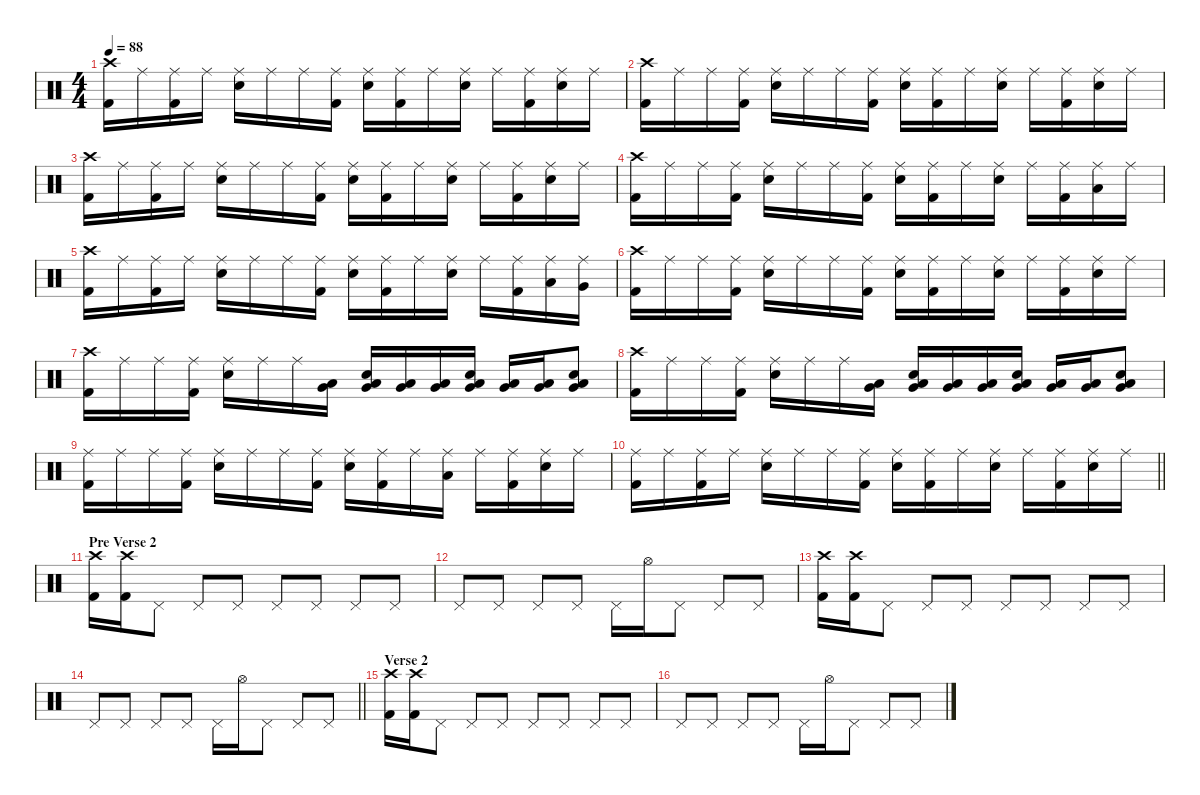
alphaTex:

\defaultSystemsLayout 4
\hideDynamics
\bracketExtendMode nobrackets
\singleTrackTrackNamePolicy hidden
\multiTrackTrackNamePolicy hidden
\firstSystemTrackNameMode fullname
\firstSystemTrackNameOrientation horizontal
\otherSystemsTrackNameOrientation horizontal
\track ("Drums" "drm.") {instrument percussion}
\staff {score}
\articulation defaults
\ts (4 4)
\tempo 88
\clef neutral
\ks c
("Crash high (hit)" "Kick (hit) 2").16{dy f beam Down} "Ride (middle)".16{beam Down} ("Ride (middle)" "Kick (hit) 2").16{beam Down} "Ride (middle)".16{beam Down} ("Ride (middle)" "Snare (hit) 2").16{beam Down} "Ride (middle)".16{beam Down} "Ride (middle)".16{beam Down} ("Ride (middle)" "Kick (hit) 2").16{beam Down} ("Ride (middle)" "Snare (hit) 2").16{beam Down} ("Ride (middle)" "Kick (hit) 2").16{beam Down} "Ride (middle)".16{beam Down} ("Ride (middle)" "Snare (hit) 2").16{beam Down} "Ride (middle)".16{beam Down} ("Ride (middle)" "Kick (hit) 2").16{beam Down} ("Ride (middle)" "Snare (hit) 2").16{beam Down} "Ride (middle)".16{beam Down} |
("Crash high (hit)" "Kick (hit) 2").16{beam Down} "Ride (middle)".16{beam Down} "Ride (middle)".16{beam Down} ("Ride (middle)" "Kick (hit) 2").16{beam Down} ("Ride (middle)" "Snare (hit) 2").16{beam Down} "Ride (middle)".16{beam Down} "Ride (middle)".16{beam Down} ("Ride (middle)" "Kick (hit) 2").16{beam Down} ("Ride (middle)" "Snare (hit) 2").16{beam Down} ("Ride (middle)" "Kick (hit) 2").16{beam Down} "Ride (middle)".16{beam Down} ("Ride (middle)" "Snare (hit) 2").16{beam Down} "Ride (middle)".16{beam Down} ("Ride (middle)" "Kick (hit) 2").16{beam Down} ("Ride (middle)" "Snare (hit) 2").16{beam Down} "Ride (middle)".16{beam Down} |
("Crash high (hit)" "Kick (hit) 2").16{beam Down} "Ride (middle)".16{beam Down} ("Ride (middle)" "Kick (hit) 2").16{beam Down} "Ride (middle)".16{beam Down} ("Ride (middle)" "Snare (hit) 2").16{beam Down} "Ride (middle)".16{beam Down} "Ride (middle)".16{beam Down} ("Ride (middle)" "Kick (hit) 2").16{beam Down} ("Ride (middle)" "Snare (hit) 2").16{beam Down} ("Ride (middle)" "Kick (hit) 2").16{beam Down} "Ride (middle)".16{beam Down} ("Ride (middle)" "Snare (hit) 2").16{beam Down} "Ride (middle)".16{beam Down} ("Ride (middle)" "Kick (hit) 2").16{beam Down} ("Ride (middle)" "Snare (hit) 2").16{beam Down} "Ride (middle)".16{beam Down} |
("Crash high (hit)" "Kick (hit) 2").16{beam Down} "Ride (middle)".16{beam Down} "Ride (middle)".16{beam Down} ("Ride (middle)" "Kick (hit) 2").16{beam Down} ("Ride (middle)" "Snare (hit) 2").16{beam Down} "Ride (middle)".16{beam Down} "Ride (middle)".16{beam Down} ("Ride (middle)" "Kick (hit) 2").16{beam Down} ("Ride (middle)" "Snare (hit) 2").16{beam Down} ("Ride (middle)" "Kick (hit) 2").16{beam Down} "Ride (middle)".16{beam Down} ("Ride (middle)" "Snare (hit) 2").16{beam Down} "Ride (middle)".16{beam Down} ("Ride (middle)" "Kick (hit) 2").16{beam Down} ("Ride (middle)" "Low Tom (hit)").16{beam Down} "Ride (middle)".16{beam Down} |
("Crash high (hit)" "Kick (hit) 2").16{beam Down} "Ride (middle)".16{beam Down} ("Ride (middle)" "Kick (hit) 2").16{beam Down} "Ride (middle)".16{beam Down} ("Ride (middle)" "Snare (hit) 2").16{beam Down} "Ride (middle)".16{beam Down} "Ride (middle)".16{beam Down} ("Ride (middle)" "Kick (hit) 2").16{beam Down} ("Ride (middle)" "Snare (hit) 2").16{beam Down} ("Ride (middle)" "Kick (hit) 2").16{beam Down} "Ride (middle)".16{beam Down} ("Ride (middle)" "Snare (hit) 2").16{beam Down} "Ride (middle)".16{beam Down} ("Ride (middle)" "Kick (hit) 2").16{beam Down} ("Ride (middle)" "Low Tom (hit)").16{beam Down} ("Ride (middle)" "Very Low Tom (hit)").16{beam Down} |
("Crash high (hit)" "Kick (hit) 2").16{beam Down} "Ride (middle)".16{beam Down} "Ride (middle)".16{beam Down} ("Ride (middle)" "Kick (hit) 2").16{beam Down} ("Ride (middle)" "Snare (hit) 2").16{beam Down} "Ride (middle)".16{beam Down} "Ride (middle)".16{beam Down} ("Ride (middle)" "Kick (hit) 2").16{beam Down} ("Ride (middle)" "Snare (hit) 2").16{beam Down} ("Ride (middle)" "Kick (hit) 2").16{beam Down} "Ride (middle)".16{beam Down} ("Ride (middle)" "Snare (hit) 2").16{beam Down} "Ride (middle)".16{beam Down} ("Ride (middle)" "Kick (hit) 2").16{beam Down} ("Ride (middle)" "Snare (hit) 2").16{beam Down} "Ride (middle)".16{beam Down} |
("Crash high (hit)" "Kick (hit) 2").16{beam Down} "Ride (middle)".16{beam Down} "Ride (middle)".16{beam Down} ("Ride (middle)" "Kick (hit) 2").16{beam Down} ("Ride (middle)" "Snare (hit) 2").16{beam Down} "Ride (middle)".16{beam Down} "Ride (middle)".16{beam Down} ("Low Tom (hit)" "Very Low Tom (hit)").16{beam Down} ("Snare (hit) 2" "Low Tom (hit)" "Very Low Tom (hit)").16{beam Up} ("Low Tom (hit)" "Very Low Tom (hit)").16{beam Up} ("Low Tom (hit)" "Very Low Tom (hit)").16{beam Up} ("Snare (hit) 2" "Low Tom (hit)" "Very Low Tom (hit)").16{beam Up} ("Low Tom (hit)" "Very Low Tom (hit)").16{beam Up} ("Low Tom (hit)" "Very Low Tom (hit)").16{beam Up} ("Snare (hit) 2" "Low Tom (hit)" "Very Low Tom (hit)").8{beam Up} |
("Crash high (hit)" "Kick (hit) 2").16{beam Down} "Ride (middle)".16{beam Down} "Ride (middle)".16{beam Down} ("Ride (middle)" "Kick (hit) 2").16{beam Down} ("Ride (middle)" "Snare (hit) 2").16{beam Down} "Ride (middle)".16{beam Down} "Ride (middle)".16{beam Down} ("Low Tom (hit)" "Very Low Tom (hit)").16{beam Down} ("Snare (hit) 2" "Low Tom (hit)" "Very Low Tom (hit)").16{beam Up} ("Low Tom (hit)" "Very Low Tom (hit)").16{beam Up} ("Low Tom (hit)" "Very Low Tom (hit)").16{beam Up} ("Snare (hit) 2" "Low Tom (hit)" "Very Low Tom (hit)").16{beam Up} ("Low Tom (hit)" "Very Low Tom (hit)").16{beam Up} ("Low Tom (hit)" "Very Low Tom (hit)").16{beam Up} ("Snare (hit) 2" "Low Tom (hit)" "Very Low Tom (hit)").8{beam Up} |
("Ride (middle)" "Kick (hit) 2").16{beam Down} "Ride (middle)".16{beam Down} "Ride (middle)".16{beam Down} ("Ride (middle)" "Kick (hit) 2").16{beam Down} ("Ride (middle)" "Snare (hit) 2").16{beam Down} "Ride (middle)".16{beam Down} "Ride (middle)".16{beam Down} ("Ride (middle)" "Kick (hit) 2").16{beam Down} ("Ride (middle)" "Snare (hit) 2").16{beam Down} ("Ride (middle)" "Kick (hit) 2").16{beam Down} "Ride (middle)".16{beam Down} ("Ride (middle)" "Low Tom (hit)").16{beam Down} "Ride (middle)".16{beam Down} ("Ride (middle)" "Kick (hit) 2").16{beam Down} ("Ride (middle)" "Snare (hit) 2").16{beam Down} "Ride (middle)".16{beam Down} |
\barLineRight lightlight
("Ride (middle)" "Kick (hit) 2").16{beam Down} "Ride (middle)".16{beam Down} ("Ride (middle)" "Kick (hit) 2").16{beam Down} "Ride (middle)".16{beam Down} ("Ride (middle)" "Snare (hit) 2").16{beam Down} "Ride (middle)".16{beam Down} "Ride (middle)".16{beam Down} ("Ride (middle)" "Kick (hit) 2").16{beam Down} ("Ride (middle)" "Snare (hit) 2").16{beam Down} ("Ride (middle)" "Kick (hit) 2").16{beam Down} "Ride (middle)".16{beam Down} ("Ride (middle)" "Snare (hit) 2").16{beam Down} "Ride (middle)".16{beam Down} ("Ride (middle)" "Kick (hit) 2").16{beam Down} ("Ride (middle)" "Snare (hit) 2").16{beam Down} "Ride (middle)".16{beam Down} |
\section ("" "Pre Verse 2")
("Crash high (hit)" "Kick (hit) 2").16{beam Down} ("Crash high (hit)" "Kick (hit) 2").16{beam Down} "Pedal Hi-Hat (hit)".8{beam Down} "Pedal Hi-Hat (hit)".8{beam Up} "Pedal Hi-Hat (hit)".8{beam Up} "Pedal Hi-Hat (hit)".8{beam Up} "Pedal Hi-Hat (hit)".8{beam Up} "Pedal Hi-Hat (hit)".8{beam Up} "Pedal Hi-Hat (hit)".8{beam Up} |
"Pedal Hi-Hat (hit)".8{beam Up} "Pedal Hi-Hat (hit)".8{beam Up} "Pedal Hi-Hat (hit)".8{beam Up} "Pedal Hi-Hat (hit)".8{beam Up} "Pedal Hi-Hat (hit)".16{beam Down} "Hi-Hat (open)".16{beam Down} "Pedal Hi-Hat (hit)".8{beam Down} "Pedal Hi-Hat (hit)".8{beam Up} "Pedal Hi-Hat (hit)".8{beam Up} |
("Crash high (hit)" "Kick (hit) 2").16{beam Down} ("Crash high (hit)" "Kick (hit) 2").16{beam Down} "Pedal Hi-Hat (hit)".8{beam Down} "Pedal Hi-Hat (hit)".8{beam Up} "Pedal Hi-Hat (hit)".8{beam Up} "Pedal Hi-Hat (hit)".8{beam Up} "Pedal Hi-Hat (hit)".8{beam Up} "Pedal Hi-Hat (hit)".8{beam Up} "Pedal Hi-Hat (hit)".8{beam Up} |
\barLineRight lightlight "Pedal Hi-Hat (hit)".8{beam Up} "Pedal Hi-Hat (hit)".8{beam Up} "Pedal Hi-Hat (hit)".8{beam Up} "Pedal Hi-Hat (hit)".8{beam Up} "Pedal Hi-Hat (hit)".16{beam Down} "Hi-Hat (open)".16{beam Down} "Pedal Hi-Hat (hit)".8{beam Down} "Pedal Hi-Hat (hit)".8{beam Up} "Pedal Hi-Hat (hit)".8{beam Up}
|
\section ("" "Verse 2")
("Crash high (hit)" "Kick (hit) 2").16{beam Down} ("Crash high (hit)" "Kick (hit) 2").16{beam Down} "Pedal Hi-Hat (hit)".8{beam Down} "Pedal Hi-Hat (hit)".8{beam Up} "Pedal Hi-Hat (hit)".8{beam Up} "Pedal Hi-Hat (hit)".8{beam Up} "Pedal Hi-Hat (hit)".8{beam Up} "Pedal Hi-Hat (hit)".8{beam Up} "Pedal Hi-Hat (hit)".8{beam Up} |
"Pedal Hi-Hat (hit)".8{beam Up} "Pedal Hi-Hat (hit)".8{beam Up} "Pedal Hi-Hat (hit)".8{beam Up} "Pedal Hi-Hat (hit)".8{beam Up} "Pedal Hi-Hat (hit)".16{beam Down} "Hi-Hat (open)".16{beam Down} "Pedal Hi-Hat (hit)".8{beam Down} "Pedal Hi-Hat (hit)".8{beam Up} "Pedal Hi-Hat (hit)".8{beam Up}
